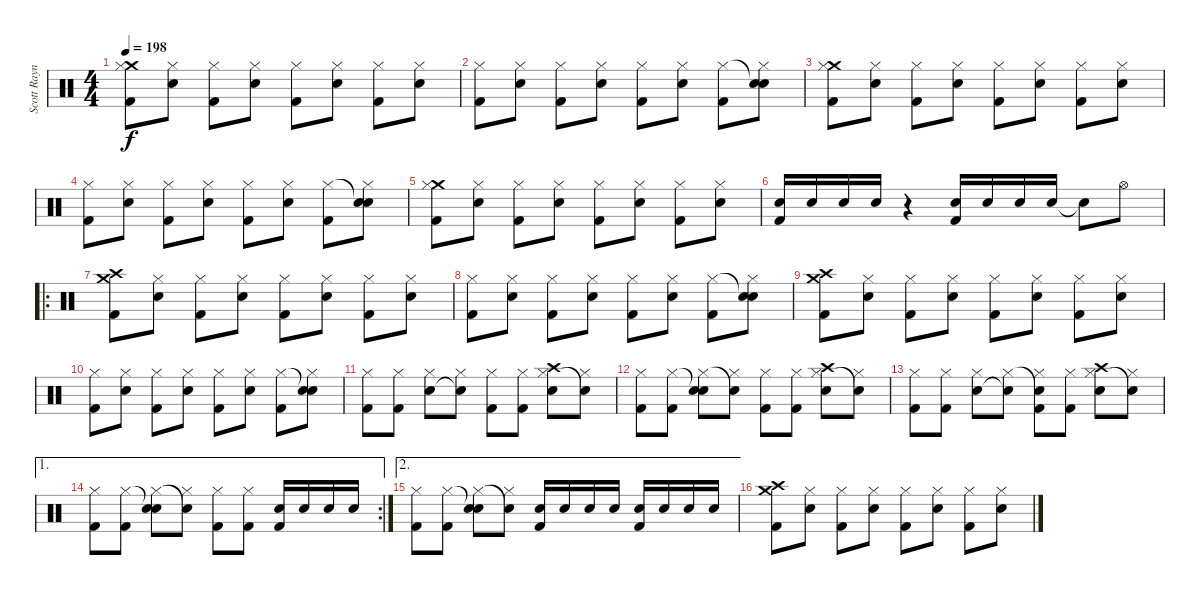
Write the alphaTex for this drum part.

\track ("Scott Raynor Drums" "Scott Rayn") {instrument percussion}
\staff {score}
\articulation defaults
\ts (4 4)
\tempo 198
\clef neutral
\ks c
("Crash medium (hit)" "Hi-Hat (closed)" "Kick (hit) 2").8{dy f} ("Hi-Hat (closed)" "Electric Snare (hit)").8 ("Hi-Hat (closed)" "Kick (hit) 2").8 ("Hi-Hat (closed)" "Electric Snare (hit)").8 ("Hi-Hat (closed)" "Kick (hit) 2").8 ("Hi-Hat (closed)" "Electric Snare (hit)").8 ("Hi-Hat (closed)" "Kick (hit) 2").8 ("Hi-Hat (closed)" "Electric Snare (hit)").8 |
("Hi-Hat (closed)" "Kick (hit) 2").8 ("Hi-Hat (closed)" "Electric Snare (hit)").8 ("Hi-Hat (closed)" "Kick (hit) 2").8 ("Hi-Hat (closed)" "Electric Snare (hit)").8 ("Hi-Hat (closed)" "Kick (hit) 2").8 ("Hi-Hat (closed)" "Electric Snare (hit)").8 ("Hi-Hat (closed)" "Kick (hit) 2").8 ("Snare (hit)"{t} "Hi-Hat (closed)" "Electric Snare (hit)").8 |
("Crash medium (hit)" "Hi-Hat (closed)" "Kick (hit) 2").8 ("Hi-Hat (closed)" "Electric Snare (hit)").8 ("Hi-Hat (closed)" "Kick (hit) 2").8 ("Hi-Hat (closed)" "Electric Snare (hit)").8 ("Hi-Hat (closed)" "Kick (hit) 2").8 ("Hi-Hat (closed)" "Electric Snare (hit)").8 ("Hi-Hat (closed)" "Kick (hit) 2").8 ("Hi-Hat (closed)" "Electric Snare (hit)").8 |
("Hi-Hat (closed)" "Kick (hit) 2").8 ("Hi-Hat (closed)" "Electric Snare (hit)").8 ("Hi-Hat (closed)" "Kick (hit) 2").8 ("Hi-Hat (closed)" "Electric Snare (hit)").8 ("Hi-Hat (closed)" "Kick (hit) 2").8 ("Hi-Hat (closed)" "Electric Snare (hit)").8 ("Hi-Hat (closed)" "Kick (hit) 2").8 ("Snare (hit)"{t} "Hi-Hat (closed)" "Electric Snare (hit)").8 |
("Crash medium (hit)" "Hi-Hat (closed)" "Kick (hit) 2").8 ("Hi-Hat (closed)" "Electric Snare (hit)").8 ("Hi-Hat (closed)" "Kick (hit) 2").8 ("Hi-Hat (closed)" "Electric Snare (hit)").8 ("Hi-Hat (closed)" "Kick (hit) 2").8 ("Hi-Hat (closed)" "Electric Snare (hit)").8 ("Hi-Hat (closed)" "Kick (hit) 2").8 ("Hi-Hat (closed)" "Electric Snare (hit)").8 |
("Electric Snare (hit)" "Kick (hit) 2").16 "Electric Snare (hit)".16 "Electric Snare (hit)".16 "Electric Snare (hit)".16 r.4 ("Electric Snare (hit)" "Kick (hit) 2").16 "Electric Snare (hit)".16 "Electric Snare (hit)".16 "Electric Snare (hit)".16 "Snare (hit)"{t}.8 "Hi-Hat (open)".8 |
\ro
("Crash medium (hit)" "Crash high (hit)" "Kick (hit) 2").8 ("Hi-Hat (closed)" "Electric Snare (hit)").8 ("Hi-Hat (closed)" "Kick (hit) 2").8 ("Hi-Hat (closed)" "Electric Snare (hit)").8 ("Hi-Hat (closed)" "Kick (hit) 2").8 ("Hi-Hat (closed)" "Electric Snare (hit)").8 ("Hi-Hat (closed)" "Kick (hit) 2").8 ("Hi-Hat (closed)" "Electric Snare (hit)").8 |
("Hi-Hat (closed)" "Kick (hit) 2").8 ("Hi-Hat (closed)" "Electric Snare (hit)").8 ("Hi-Hat (closed)" "Kick (hit) 2").8 ("Hi-Hat (closed)" "Electric Snare (hit)").8 ("Hi-Hat (closed)" "Kick (hit) 2").8 ("Hi-Hat (closed)" "Electric Snare (hit)").8 ("Hi-Hat (closed)" "Kick (hit) 2").8 ("Snare (hit)"{t} "Hi-Hat (closed)" "Electric Snare (hit)").8 |
("Crash medium (hit)" "Crash high (hit)" "Kick (hit) 2").8 ("Hi-Hat (closed)" "Electric Snare (hit)").8 ("Hi-Hat (closed)" "Kick (hit) 2").8 ("Hi-Hat (closed)" "Electric Snare (hit)").8 ("Hi-Hat (closed)" "Kick (hit) 2").8 ("Hi-Hat (closed)" "Electric Snare (hit)").8 ("Hi-Hat (closed)" "Kick (hit) 2").8 ("Hi-Hat (closed)" "Electric Snare (hit)").8 |
("Hi-Hat (closed)" "Kick (hit) 2").8 ("Hi-Hat (closed)" "Electric Snare (hit)").8 ("Hi-Hat (closed)" "Kick (hit) 2").8 ("Hi-Hat (closed)" "Electric Snare (hit)").8 ("Hi-Hat (closed)" "Kick (hit) 2").8 ("Hi-Hat (closed)" "Electric Snare (hit)").8 ("Hi-Hat (closed)" "Kick (hit) 2").8 ("Snare (hit)"{t} "Hi-Hat (closed)" "Electric Snare (hit)").8 |
("Hi-Hat (closed)" "Kick (hit) 2").8 ("Hi-Hat (closed)" "Kick (hit) 2").8 ("Hi-Hat (closed)" "Electric Snare (hit)").8 ("Hi-Hat (closed)" "Snare (hit)"{t}).8 ("Hi-Hat (closed)" "Kick (hit) 2").8 ("Hi-Hat (closed)" "Kick (hit) 2").8 ("Crash high (hit)" "Hi-Hat (closed)" "Electric Snare (hit)").8 ("Hi-Hat (closed)" "Snare (hit)"{t}).8 |
("Hi-Hat (closed)" "Kick (hit) 2").8 ("Hi-Hat (closed)" "Kick (hit) 2").8 ("Snare (hit)"{t} "Hi-Hat (closed)" "Electric Snare (hit)").8 ("Hi-Hat (closed)" "Snare (hit)"{t}).8 ("Hi-Hat (closed)" "Kick (hit) 2").8 ("Hi-Hat (closed)" "Kick (hit) 2").8 ("Crash high (hit)" "Hi-Hat (closed)" "Electric Snare (hit)").8 ("Hi-Hat (closed)" "Snare (hit)"{t}).8 |
("Hi-Hat (closed)" "Kick (hit) 2").8 ("Hi-Hat (closed)" "Kick (hit) 2").8 ("Hi-Hat (closed)" "Electric Snare (hit)").8 ("Hi-Hat (closed)" "Snare (hit)"{t}).8 ("Snare (hit)"{t} "Hi-Hat (closed)" "Kick (hit) 2").8 ("Hi-Hat (closed)" "Kick (hit) 2").8 ("Crash high (hit)" "Hi-Hat (closed)" "Electric Snare (hit)").8 ("Hi-Hat (closed)" "Snare (hit)"{t}).8 |
\ae 1
\rc 2
("Hi-Hat (closed)" "Kick (hit) 2").8 ("Hi-Hat (closed)" "Kick (hit) 2").8 ("Snare (hit)"{t} "Hi-Hat (closed)" "Electric Snare (hit)").8 ("Hi-Hat (closed)" "Snare (hit)"{t}).8 ("Hi-Hat (closed)" "Kick (hit) 2").8 ("Hi-Hat (closed)" "Kick (hit) 2").8 ("Electric Snare (hit)" "Kick (hit) 2").16 "Electric Snare (hit)".16 "Electric Snare (hit)".16 "Electric Snare (hit)".16 |
\ae 2
("Hi-Hat (closed)" "Kick (hit) 2").8 ("Hi-Hat (closed)" "Kick (hit) 2").8 ("Snare (hit)"{t} "Hi-Hat (closed)" "Electric Snare (hit)").8 ("Hi-Hat (closed)" "Snare (hit)"{t}).8 ("Electric Snare (hit)" "Kick (hit) 2").16 "Electric Snare (hit)".16 "Electric Snare (hit)".16 "Electric Snare (hit)".16 ("Electric Snare (hit)" "Kick (hit) 2").16 "Electric Snare (hit)".16 "Electric Snare (hit)".16 "Electric Snare (hit)".16 |
("Crash medium (hit)" "Crash high (hit)" "Kick (hit) 2").8 ("Hi-Hat (closed)" "Electric Snare (hit)").8 ("Hi-Hat (closed)" "Kick (hit) 2").8 ("Hi-Hat (closed)" "Electric Snare (hit)").8 ("Hi-Hat (closed)" "Kick (hit) 2").8 ("Hi-Hat (closed)" "Electric Snare (hit)").8 ("Hi-Hat (closed)" "Kick (hit) 2").8 ("Hi-Hat (closed)" "Electric Snare (hit)").8
